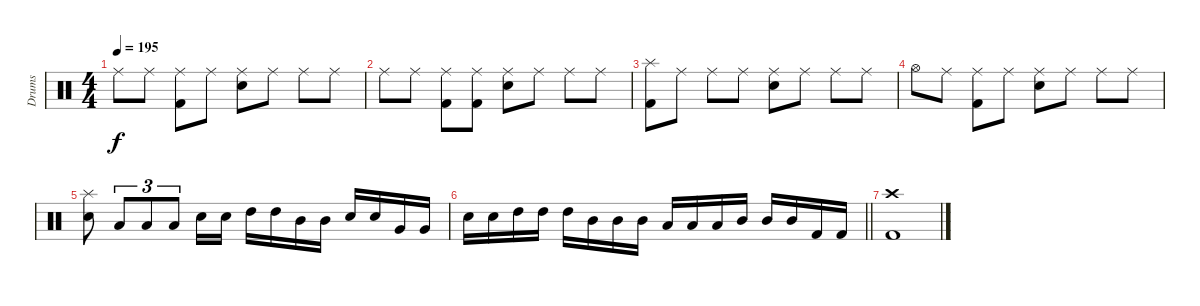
\track ("Drums" "Drums") {instrument percussion}
\staff {score}
\articulation defaults
\ts (4 4)
\tempo 195
\clef neutral
\ks c "Ride (middle)".8{dy f} "Ride (middle)".8
("Ride (middle)" "Kick (hit) 2").8 "Ride (middle)".8 ("Ride (middle)" "Snare (hit) 2").8 "Ride (middle)".8 "Ride (middle)".8 "Ride (middle)".8 |
"Ride (middle)".8 "Ride (middle)".8 ("Ride (middle)" "Kick (hit) 2").8 ("Ride (middle)" "Kick (hit) 2").8 ("Ride (middle)" "Snare (hit) 2").8 "Ride (middle)".8 "Ride (middle)".8 "Ride (middle)".8 |
("Splash (hit)" "Kick (hit) 2").8 "Ride (middle)".8 "Ride (middle)".8 "Ride (middle)".8 ("Ride (middle)" "Snare (hit) 2").8 "Ride (middle)".8 "Ride (middle)".8 "Ride (middle)".8 |
"Hi-Hat (open)".8 "Ride (middle)".8 ("Ride (middle)" "Kick (hit) 2").8 "Ride (middle)".8 ("Ride (middle)" "Snare (hit) 2").8 "Ride (middle)".8 "Ride (middle)".8 "Ride (middle)".8 |
("Splash (hit)" "Snare (hit) 2").8 "Low Tom (hit)".8{tu (3 2)} "Low Tom (hit)".8{tu (3 2)} "Low Tom (hit)".8{tu (3 2)} "Snare (hit) 2".16 "Snare (hit) 2".16 "High Tom (hit)".16 "High Tom (hit)".16 "Mid Tom (hit)".16 "Mid Tom (hit)".16 "Snare (hit) 2".16 "Snare (hit) 2".16 "Very Low Tom (hit)".16 "Very Low Tom (hit)".16 |
\barLineRight lightlight "Snare (hit) 2".16 "Snare (hit) 2".16 "High Tom (hit)".16 "High Tom (hit)".16 "High Tom (hit)".16 "Mid Tom (hit)".16 "Mid Tom (hit)".16 "Mid Tom (hit)".16 "Low Tom (hit)".16 "Low Tom (hit)".16 "Low Tom (hit)".16 "Mid Tom (hit)".16 "Mid Tom (hit)".16 "Mid Tom (hit)".16 "Kick (hit) 2".16 "Kick (hit) 2".16
|
\section ("" "")
("Crash high (hit)" "Kick (hit) 2").1
